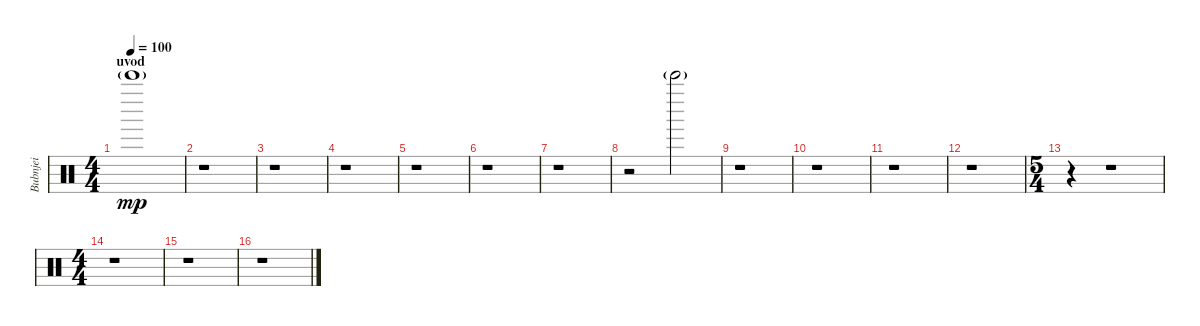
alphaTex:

\track ("Bubnjei" "Bubnjei") {instrument percussion}
\staff {score}
\articulation defaults
\ts (4 4)
\section ("" "uvod")
\tempo 100
\clef neutral
\ks c "Bell Tree (hit)"{g}.1{dy mp}
|
r.1 |
r.1 |
r.1 |
r.1 |
r.1 |
r.1 |
r.2 "Bell Tree (hit)"{g}.2 |
r.1 |
r.1 |
r.1 |
r.1 |
\ts (5 4)
r.4 r.1 |
\ts (4 4)
r.1 |
r.1 |
r.1
